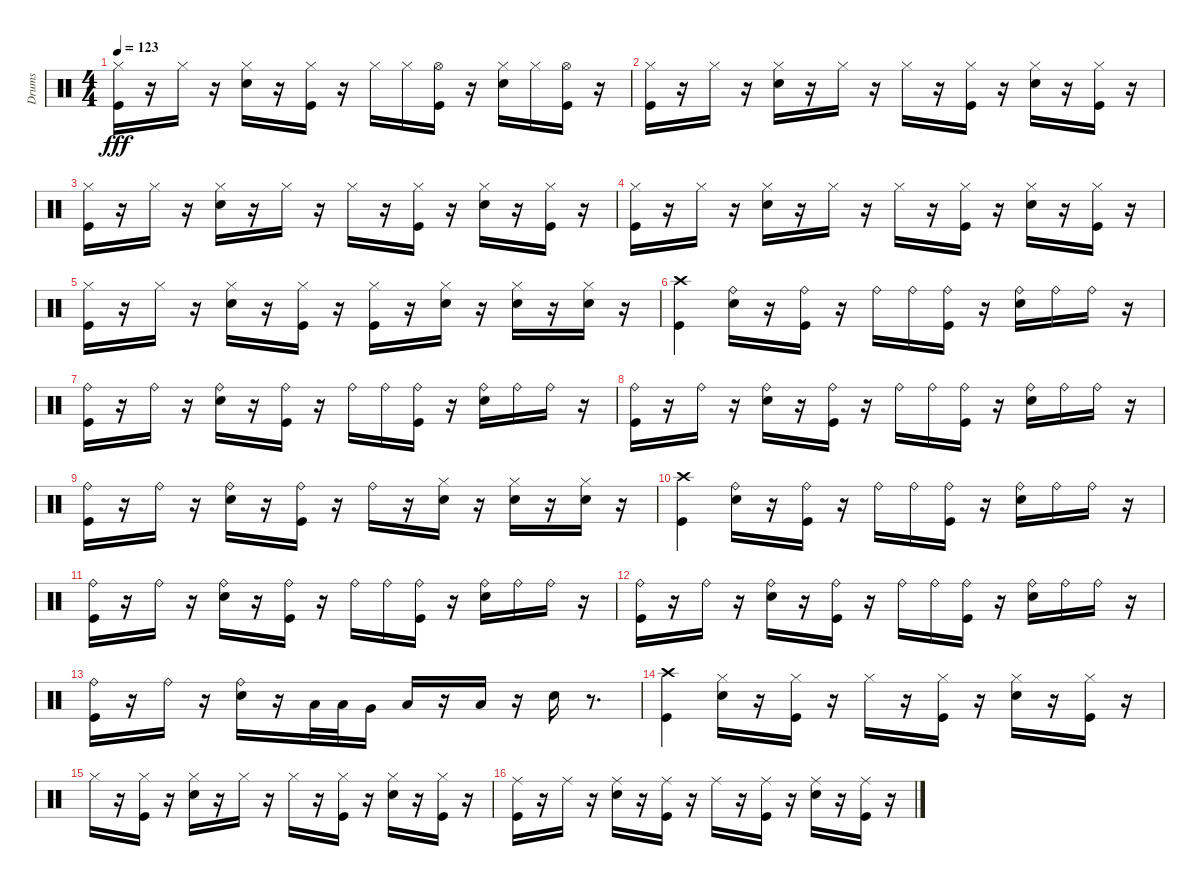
\track ("Drums" "Drums") {instrument percussion}
\staff {score}
\articulation defaults
\ts (4 4)
\tempo 123
\clef neutral
\ks c
("Hi-Hat (closed)" "Kick (hit)").16{dy fff} r.16 "Hi-Hat (closed)".16 r.16 ("Hi-Hat (closed)" "Snare (hit) 2").16 r.16 ("Hi-Hat (closed)" "Kick (hit)").16 r.16 "Hi-Hat (closed)".16 "Hi-Hat (closed)".16 ("Hi-Hat (open)" "Kick (hit)").16 r.16 ("Hi-Hat (closed)" "Snare (hit) 2").16 "Hi-Hat (closed)".16 ("Hi-Hat (open)" "Kick (hit)").16 r.16 |
("Hi-Hat (closed)" "Kick (hit)").16 r.16 "Hi-Hat (closed)".16 r.16 ("Hi-Hat (closed)" "Snare (hit) 2").16 r.16 "Hi-Hat (closed)".16 r.16 "Hi-Hat (closed)".16 r.16 ("Hi-Hat (closed)" "Kick (hit)").16 r.16 ("Hi-Hat (closed)" "Snare (hit) 2").16 r.16 ("Hi-Hat (closed)" "Kick (hit)").16 r.16 |
("Hi-Hat (closed)" "Kick (hit)").16 r.16 "Hi-Hat (closed)".16 r.16 ("Hi-Hat (closed)" "Snare (hit) 2").16 r.16 "Hi-Hat (closed)".16 r.16 "Hi-Hat (closed)".16 r.16 ("Hi-Hat (closed)" "Kick (hit)").16 r.16 ("Hi-Hat (closed)" "Snare (hit) 2").16 r.16 ("Hi-Hat (closed)" "Kick (hit)").16 r.16 |
("Hi-Hat (closed)" "Kick (hit)").16 r.16 "Hi-Hat (closed)".16 r.16 ("Hi-Hat (closed)" "Snare (hit) 2").16 r.16 "Hi-Hat (closed)".16 r.16 "Hi-Hat (closed)".16 r.16 ("Hi-Hat (closed)" "Kick (hit)").16 r.16 ("Hi-Hat (closed)" "Snare (hit) 2").16 r.16 ("Hi-Hat (closed)" "Kick (hit)").16 r.16 |
("Hi-Hat (closed)" "Kick (hit)").16 r.16 "Hi-Hat (closed)".16 r.16 ("Hi-Hat (closed)" "Snare (hit) 2").16 r.16 ("Hi-Hat (closed)" "Kick (hit)").16 r.16 ("Hi-Hat (closed)" "Kick (hit)").16 r.16 ("Hi-Hat (closed)" "Snare (hit) 2").16 r.16 ("Hi-Hat (closed)" "Snare (hit) 2").16 r.16 ("Hi-Hat (closed)" "Snare (hit) 2").16 r.16 |
("Kick (hit)" "Crash high (hit)").4 ("Snare (hit) 2" "Ride (bell)").16 r.16 ("Kick (hit)" "Ride (bell)").16 r.16 "Ride (bell)".16 "Ride (bell)".16 ("Kick (hit)" "Ride (bell)").16 r.16 ("Snare (hit) 2" "Ride (bell)").16 "Ride (bell)".16 "Ride (bell)".16 r.16 |
("Ride (bell)" "Kick (hit)").16 r.16 "Ride (bell)".16 r.16 ("Ride (bell)" "Snare (hit) 2").16 r.16 ("Ride (bell)" "Kick (hit)").16 r.16 "Ride (bell)".16 "Ride (bell)".16 ("Ride (bell)" "Kick (hit)").16 r.16 ("Ride (bell)" "Snare (hit) 2").16 "Ride (bell)".16 "Ride (bell)".16 r.16 |
("Ride (bell)" "Kick (hit)").16 r.16 "Ride (bell)".16 r.16 ("Ride (bell)" "Snare (hit) 2").16 r.16 ("Ride (bell)" "Kick (hit)").16 r.16 "Ride (bell)".16 "Ride (bell)".16 ("Ride (bell)" "Kick (hit)").16 r.16 ("Ride (bell)" "Snare (hit) 2").16 "Ride (bell)".16 "Ride (bell)".16 r.16 |
("Kick (hit)" "Ride (bell)").16 r.16 "Ride (bell)".16 r.16 ("Snare (hit) 2" "Ride (bell)").16 r.16 ("Kick (hit)" "Ride (bell)").16 r.16 "Ride (bell)".16 r.16 ("Snare (hit) 2" "Hi-Hat (closed)").16 r.16 ("Snare (hit) 2" "Hi-Hat (closed)").16 r.16 ("Snare (hit) 2" "Hi-Hat (closed)").16 r.16 |
("Kick (hit)" "Crash high (hit)").4 ("Snare (hit) 2" "Ride (bell)").16 r.16 ("Kick (hit)" "Ride (bell)").16 r.16 "Ride (bell)".16 "Ride (bell)".16 ("Kick (hit)" "Ride (bell)").16 r.16 ("Snare (hit) 2" "Ride (bell)").16 "Ride (bell)".16 "Ride (bell)".16 r.16 |
("Ride (bell)" "Kick (hit)").16 r.16 "Ride (bell)".16 r.16 ("Ride (bell)" "Snare (hit) 2").16 r.16 ("Ride (bell)" "Kick (hit)").16 r.16 "Ride (bell)".16 "Ride (bell)".16 ("Ride (bell)" "Kick (hit)").16 r.16 ("Ride (bell)" "Snare (hit) 2").16 "Ride (bell)".16 "Ride (bell)".16 r.16 |
("Ride (bell)" "Kick (hit)").16 r.16 "Ride (bell)".16 r.16 ("Ride (bell)" "Snare (hit) 2").16 r.16 ("Ride (bell)" "Kick (hit)").16 r.16 "Ride (bell)".16 "Ride (bell)".16 ("Ride (bell)" "Kick (hit)").16 r.16 ("Ride (bell)" "Snare (hit) 2").16 "Ride (bell)".16 "Ride (bell)".16 r.16 |
("Kick (hit)" "Ride (bell)").16 r.16 "Ride (bell)".16 r.16 ("Snare (hit) 2" "Ride (bell)").16 r.16 "Low Tom (hit)".32 "Low Tom (hit)".32 "Very Low Tom (hit)".16 "Low Floor Tom (hit)".16 r.16 "Low Floor Tom (hit)".16 r.16 "Snare (hit) 2".16 r.8{d} |
("Kick (hit)" "Crash high (hit)").4 ("Hi-Hat (closed)" "Snare (hit) 2").16 r.16 ("Hi-Hat (closed)" "Kick (hit)").16 r.16 "Hi-Hat (closed)".16 r.16 ("Hi-Hat (closed)" "Kick (hit)").16 r.16 ("Hi-Hat (closed)" "Snare (hit) 2").16 r.16 ("Hi-Hat (closed)" "Kick (hit)").16 r.16 |
"Hi-Hat (closed)".16 r.16 ("Hi-Hat (closed)" "Kick (hit)").16 r.16 ("Hi-Hat (closed)" "Snare (hit) 2").16 r.16 "Hi-Hat (closed)".16 r.16 "Hi-Hat (closed)".16 r.16 ("Hi-Hat (closed)" "Kick (hit)").16 r.16 ("Hi-Hat (closed)" "Snare (hit) 2").16 r.16 ("Hi-Hat (closed)" "Kick (hit)").16 r.16 |
("Kick (hit)" "Ride (middle)").16 r.16 "Ride (middle)".16 r.16 ("Snare (hit) 2" "Ride (middle)").16 r.16 ("Kick (hit)" "Ride (middle)").16 r.16 "Ride (middle)".16 r.16 ("Kick (hit)" "Ride (middle)").16 r.16 ("Snare (hit) 2" "Ride (middle)").16 r.16 ("Kick (hit)" "Ride (middle)").16 r.16
